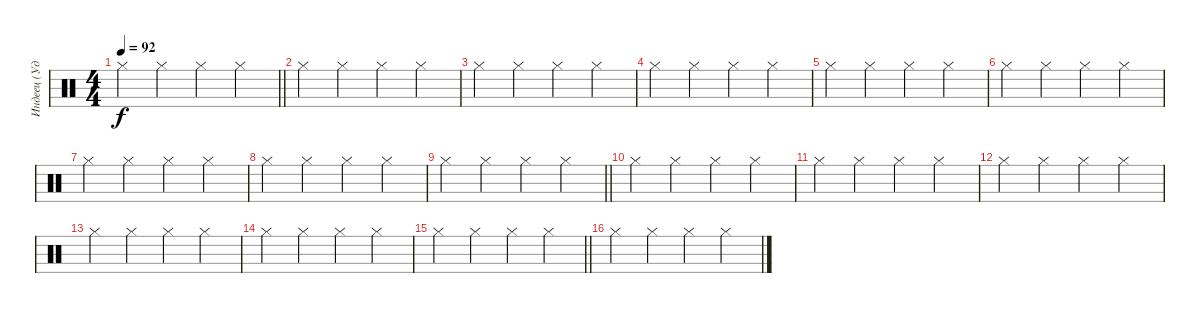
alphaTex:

\track ("Индеец (Ударные)" "Индеец (Уд") {instrument percussion}
\staff {score}
\articulation defaults
\ts (4 4)
\tempo 92
\clef neutral
\barLineRight lightlight
\ks c "Hi-Hat (closed)".4{dy f} "Hi-Hat (closed)".4 "Hi-Hat (closed)".4 "Hi-Hat (closed)".4
|
"Hi-Hat (closed)".4 "Hi-Hat (closed)".4 "Hi-Hat (closed)".4 "Hi-Hat (closed)".4 |
"Hi-Hat (closed)".4 "Hi-Hat (closed)".4 "Hi-Hat (closed)".4 "Hi-Hat (closed)".4 |
"Hi-Hat (closed)".4 "Hi-Hat (closed)".4 "Hi-Hat (closed)".4 "Hi-Hat (closed)".4 |
"Hi-Hat (closed)".4 "Hi-Hat (closed)".4 "Hi-Hat (closed)".4 "Hi-Hat (closed)".4 |
"Hi-Hat (closed)".4 "Hi-Hat (closed)".4 "Hi-Hat (closed)".4 "Hi-Hat (closed)".4 |
"Hi-Hat (closed)".4 "Hi-Hat (closed)".4 "Hi-Hat (closed)".4 "Hi-Hat (closed)".4 |
"Hi-Hat (closed)".4 "Hi-Hat (closed)".4 "Hi-Hat (closed)".4 "Hi-Hat (closed)".4 |
\barLineRight lightlight "Hi-Hat (closed)".4 "Hi-Hat (closed)".4 "Hi-Hat (closed)".4 "Hi-Hat (closed)".4
|
\section ("" "")
"Hi-Hat (closed)".4 "Hi-Hat (closed)".4 "Hi-Hat (closed)".4 "Hi-Hat (closed)".4 |
"Hi-Hat (closed)".4 "Hi-Hat (closed)".4 "Hi-Hat (closed)".4 "Hi-Hat (closed)".4 |
"Hi-Hat (closed)".4 "Hi-Hat (closed)".4 "Hi-Hat (closed)".4 "Hi-Hat (closed)".4 |
"Hi-Hat (closed)".4 "Hi-Hat (closed)".4 "Hi-Hat (closed)".4 "Hi-Hat (closed)".4 |
"Hi-Hat (closed)".4 "Hi-Hat (closed)".4 "Hi-Hat (closed)".4 "Hi-Hat (closed)".4 |
\barLineRight lightlight "Hi-Hat (closed)".4 "Hi-Hat (closed)".4 "Hi-Hat (closed)".4 "Hi-Hat (closed)".4
|
\section ("" "")
"Hi-Hat (closed)".4 "Hi-Hat (closed)".4 "Hi-Hat (closed)".4 "Hi-Hat (closed)".4
